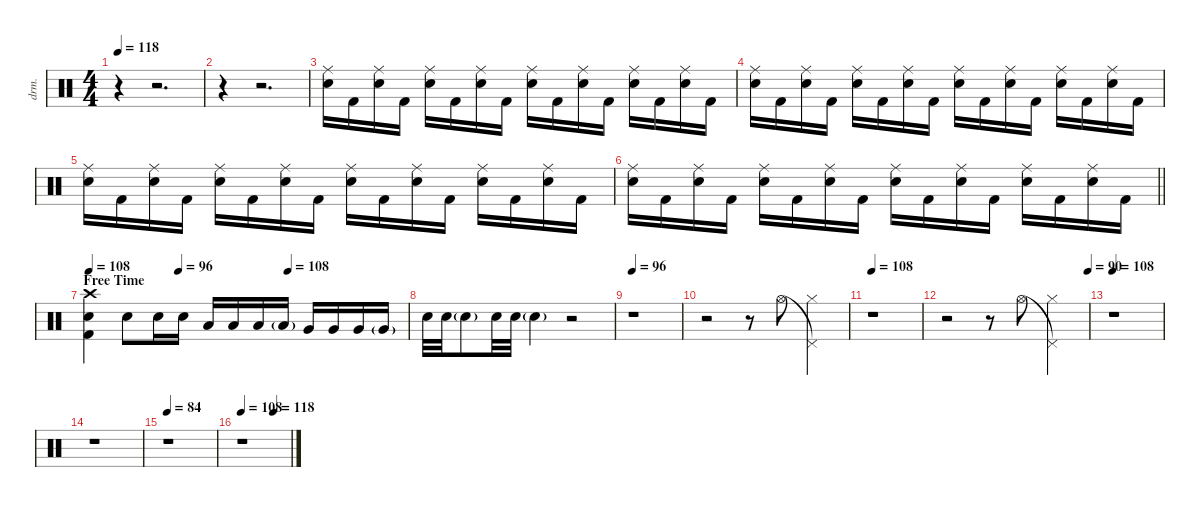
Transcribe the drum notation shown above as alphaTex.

\defaultSystemsLayout 4
\hideDynamics
\bracketExtendMode nobrackets
\otherSystemsTrackNameOrientation horizontal
\track ("Drums" "drm.") {instrument percussion}
\staff {score}
\articulation defaults
\ts (4 4)
\tempo 118
\clef neutral
\ks c
r.4{dy f beam Down} r.2{d beam Down} |
r.4{beam Down} r.2{d beam Down} |
("Ride (middle)" "Snare (hit) 2").16{beam Down} "Kick (hit) 2".16{beam Down} ("Ride (middle)" "Snare (hit) 2").16{beam Down} "Kick (hit) 2".16{beam Down} ("Ride (middle)" "Snare (hit) 2").16{beam Down} "Kick (hit) 2".16{beam Down} ("Ride (middle)" "Snare (hit) 2").16{beam Down} "Kick (hit) 2".16{beam Down} ("Ride (middle)" "Snare (hit) 2").16{beam Down} "Kick (hit) 2".16{beam Down} ("Ride (middle)" "Snare (hit) 2").16{beam Down} "Kick (hit) 2".16{beam Down} ("Ride (middle)" "Snare (hit) 2").16{beam Down} "Kick (hit) 2".16{beam Down} ("Ride (middle)" "Snare (hit) 2").16{beam Down} "Kick (hit) 2".16{beam Down} |
("Ride (middle)" "Snare (hit) 2").16{beam Down} "Kick (hit) 2".16{beam Down} ("Ride (middle)" "Snare (hit) 2").16{beam Down} "Kick (hit) 2".16{beam Down} ("Ride (middle)" "Snare (hit) 2").16{beam Down} "Kick (hit) 2".16{beam Down} ("Ride (middle)" "Snare (hit) 2").16{beam Down} "Kick (hit) 2".16{beam Down} ("Ride (middle)" "Snare (hit) 2").16{beam Down} "Kick (hit) 2".16{beam Down} ("Ride (middle)" "Snare (hit) 2").16{beam Down} "Kick (hit) 2".16{beam Down} ("Ride (middle)" "Snare (hit) 2").16{beam Down} "Kick (hit) 2".16{beam Down} ("Ride (middle)" "Snare (hit) 2").16{beam Down} "Kick (hit) 2".16{beam Down} |
("Ride (middle)" "Snare (hit) 2").16{beam Down} "Kick (hit) 2".16{beam Down} ("Ride (middle)" "Snare (hit) 2").16{beam Down} "Kick (hit) 2".16{beam Down} ("Ride (middle)" "Snare (hit) 2").16{beam Down} "Kick (hit) 2".16{beam Down} ("Ride (middle)" "Snare (hit) 2").16{beam Down} "Kick (hit) 2".16{beam Down} ("Ride (middle)" "Snare (hit) 2").16{beam Down} "Kick (hit) 2".16{beam Down} ("Ride (middle)" "Snare (hit) 2").16{beam Down} "Kick (hit) 2".16{beam Down} ("Ride (middle)" "Snare (hit) 2").16{beam Down} "Kick (hit) 2".16{beam Down} ("Ride (middle)" "Snare (hit) 2").16{beam Down} "Kick (hit) 2".16{beam Down} |
\barLineRight lightlight
("Ride (middle)" "Snare (hit) 2").16{beam Down} "Kick (hit) 2".16{beam Down} ("Ride (middle)" "Snare (hit) 2").16{beam Down} "Kick (hit) 2".16{beam Down} ("Ride (middle)" "Snare (hit) 2").16{beam Down} "Kick (hit) 2".16{beam Down} ("Ride (middle)" "Snare (hit) 2").16{beam Down} "Kick (hit) 2".16{beam Down} ("Ride (middle)" "Snare (hit) 2").16{beam Down} "Kick (hit) 2".16{beam Down} ("Ride (middle)" "Snare (hit) 2").16{beam Down} "Kick (hit) 2".16{beam Down} ("Ride (middle)" "Snare (hit) 2").16{beam Down} "Kick (hit) 2".16{beam Down} ("Ride (middle)" "Snare (hit) 2").16{beam Down} "Kick (hit) 2".16{beam Down} |
\section ("" "Free Time")
\tempo 108
\tempo (96 0.28125)
\tempo (108 0.625)
("Crash high (hit)" "Snare (hit) 2" "Kick (hit) 2").4{dy ff beam Down} "Snare (hit) 2".8{dy f beam Down} "Snare (hit) 2".16{beam Down} "Snare (hit) 2".16{beam Down} "Low Tom (hit)".16{beam Up} "Low Tom (hit)".16{beam Up} "Low Tom (hit)".16{beam Up} "Low Tom (hit)"{g}.16{dy mf beam Up} "Very Low Tom (hit)".16{dy f beam Up} "Very Low Tom (hit)".16{beam Up} "Very Low Tom (hit)".16{beam Up} "Very Low Tom (hit)"{g}.16{dy mf beam Up} |
"Snare (hit) 2".32{dy p beam Down} "Snare (hit) 2".32{dy mp beam Down} "Snare (hit) 2"{g}.8{dy mf beam Down} "Snare (hit) 2".32{dy p beam Down} "Snare (hit) 2".32{dy mf beam Down} "Snare (hit) 2"{g}.4{beam Down} r.2{beam Down} |
\tempo 96
r.1{beam Down} |
r.2{beam Down} r.8{beam Down} "Hi-Hat (open)".8{dy f legatoorigin beam Down} ("Hi-Hat (closed)" "Pedal Hi-Hat (hit)").4{beam Down} |
\tempo 108
r.1{beam Down} |
\tempo (90 1)
r.2{beam Down} r.8{beam Down} "Hi-Hat (open)".8{legatoorigin beam Down} ("Hi-Hat (closed)" "Pedal Hi-Hat (hit)").4{beam Down} |
\tempo 108
r.1{beam Down} |
r.1{beam Down} |
\tempo 84
r.1{beam Down} |
\tempo 108
\tempo (118 0.65625)
r.1{beam Down}
